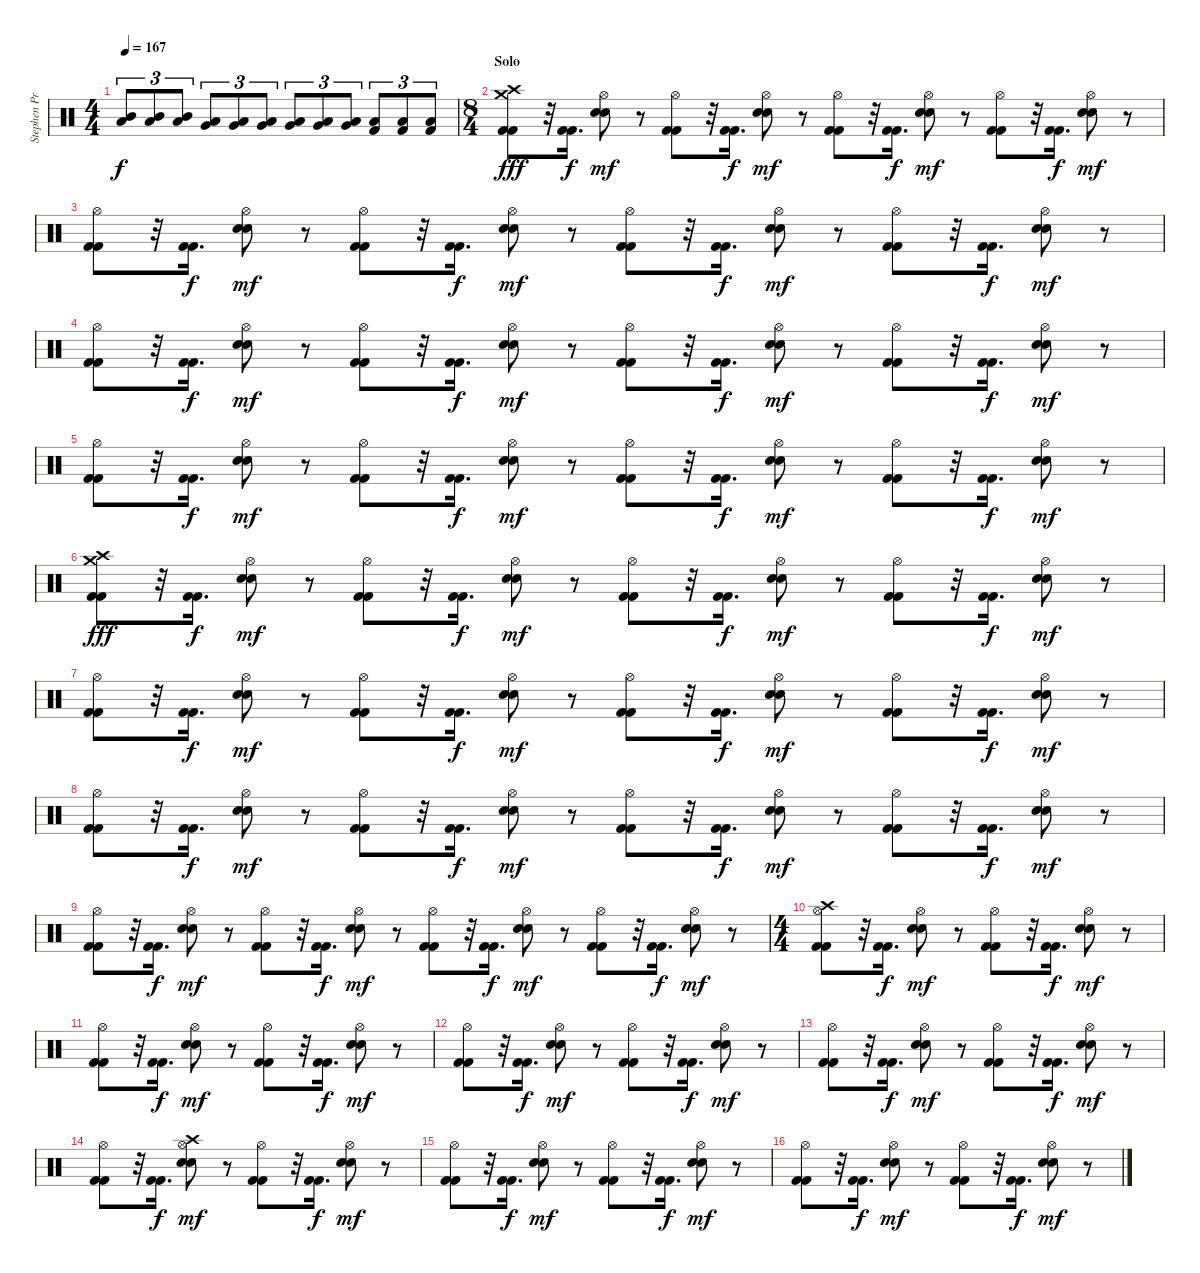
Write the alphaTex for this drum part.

\track ("Stephen Priestly  (Drums)" "Stephen Pr") {instrument percussion}
\staff {score}
\articulation defaults
\ts (4 4)
\tempo 167
\clef neutral
\ks c
("Mid Tom (hit)" "Low Tom (hit)").8{tu (3 2) dy f} ("Mid Tom (hit)" "Low Tom (hit)").8{tu (3 2)} ("Mid Tom (hit)" "Low Tom (hit)").8{tu (3 2)} ("Low Tom (hit)" "Very Low Tom (hit)").8{tu (3 2)} ("Low Tom (hit)" "Very Low Tom (hit)").8{tu (3 2)} ("Low Tom (hit)" "Very Low Tom (hit)").8{tu (3 2)} ("Very Low Tom (hit)" "Low Floor Tom (hit)").8{tu (3 2)} ("Very Low Tom (hit)" "Low Floor Tom (hit)").8{tu (3 2)} ("Very Low Tom (hit)" "Low Floor Tom (hit)").8{tu (3 2)} ("Low Floor Tom (hit)" "Kick (hit) 2").8{tu (3 2)} ("Low Floor Tom (hit)" "Kick (hit) 2").8{tu (3 2)} ("Low Floor Tom (hit)" "Kick (hit) 2").8{tu (3 2)} |
\ts (8 4)
\section ("" "Solo")
("Crash high (hit)" "Crash medium (hit)" "Kick (hit) 2" "Kick (hit) 2").8{dy fff} r.32 ("Kick (hit) 2" "Kick (hit) 2").16{d dy f} ("Hi-Hat (open)" "Electric Snare (hit)" "Electric Snare (hit)").8{dy mf} r.8 ("Hi-Hat (open)" "Kick (hit) 2" "Kick (hit) 2").8 r.32 ("Kick (hit) 2" "Kick (hit) 2").16{d dy f} ("Hi-Hat (open)" "Electric Snare (hit)" "Electric Snare (hit)").8{dy mf} r.8 ("Hi-Hat (open)" "Kick (hit) 2" "Kick (hit) 2").8 r.32 ("Kick (hit) 2" "Kick (hit) 2").16{d dy f} ("Hi-Hat (open)" "Electric Snare (hit)" "Electric Snare (hit)").8{dy mf} r.8 ("Hi-Hat (open)" "Kick (hit) 2" "Kick (hit) 2").8 r.32 ("Kick (hit) 2" "Kick (hit) 2").16{d dy f} ("Hi-Hat (open)" "Electric Snare (hit)" "Electric Snare (hit)").8{dy mf} r.8 |
("Hi-Hat (open)" "Kick (hit) 2" "Kick (hit) 2").8 r.32 ("Kick (hit) 2" "Kick (hit) 2").16{d dy f} ("Hi-Hat (open)" "Electric Snare (hit)" "Electric Snare (hit)").8{dy mf} r.8 ("Hi-Hat (open)" "Kick (hit) 2" "Kick (hit) 2").8 r.32 ("Kick (hit) 2" "Kick (hit) 2").16{d dy f} ("Hi-Hat (open)" "Electric Snare (hit)" "Electric Snare (hit)").8{dy mf} r.8 ("Hi-Hat (open)" "Kick (hit) 2" "Kick (hit) 2").8 r.32 ("Kick (hit) 2" "Kick (hit) 2").16{d dy f} ("Hi-Hat (open)" "Electric Snare (hit)" "Electric Snare (hit)").8{dy mf} r.8 ("Hi-Hat (open)" "Kick (hit) 2" "Kick (hit) 2").8 r.32 ("Kick (hit) 2" "Kick (hit) 2").16{d dy f} ("Hi-Hat (open)" "Electric Snare (hit)" "Electric Snare (hit)").8{dy mf} r.8 |
("Hi-Hat (open)" "Kick (hit) 2" "Kick (hit) 2").8 r.32 ("Kick (hit) 2" "Kick (hit) 2").16{d dy f} ("Hi-Hat (open)" "Electric Snare (hit)" "Electric Snare (hit)").8{dy mf} r.8 ("Hi-Hat (open)" "Kick (hit) 2" "Kick (hit) 2").8 r.32 ("Kick (hit) 2" "Kick (hit) 2").16{d dy f} ("Hi-Hat (open)" "Electric Snare (hit)" "Electric Snare (hit)").8{dy mf} r.8 ("Hi-Hat (open)" "Kick (hit) 2" "Kick (hit) 2").8 r.32 ("Kick (hit) 2" "Kick (hit) 2").16{d dy f} ("Hi-Hat (open)" "Electric Snare (hit)" "Electric Snare (hit)").8{dy mf} r.8 ("Hi-Hat (open)" "Kick (hit) 2" "Kick (hit) 2").8 r.32 ("Kick (hit) 2" "Kick (hit) 2").16{d dy f} ("Hi-Hat (open)" "Electric Snare (hit)" "Electric Snare (hit)").8{dy mf} r.8 |
("Hi-Hat (open)" "Kick (hit) 2" "Kick (hit) 2").8 r.32 ("Kick (hit) 2" "Kick (hit) 2").16{d dy f} ("Hi-Hat (open)" "Electric Snare (hit)" "Electric Snare (hit)").8{dy mf} r.8 ("Hi-Hat (open)" "Kick (hit) 2" "Kick (hit) 2").8 r.32 ("Kick (hit) 2" "Kick (hit) 2").16{d dy f} ("Hi-Hat (open)" "Electric Snare (hit)" "Electric Snare (hit)").8{dy mf} r.8 ("Hi-Hat (open)" "Kick (hit) 2" "Kick (hit) 2").8 r.32 ("Kick (hit) 2" "Kick (hit) 2").16{d dy f} ("Hi-Hat (open)" "Electric Snare (hit)" "Electric Snare (hit)").8{dy mf} r.8 ("Hi-Hat (open)" "Kick (hit) 2" "Kick (hit) 2").8 r.32 ("Kick (hit) 2" "Kick (hit) 2").16{d dy f} ("Hi-Hat (open)" "Electric Snare (hit)" "Electric Snare (hit)").8{dy mf} r.8 |
("Crash high (hit)" "Crash medium (hit)" "Kick (hit) 2" "Kick (hit) 2").8{dy fff} r.32 ("Kick (hit) 2" "Kick (hit) 2").16{d dy f} ("Hi-Hat (open)" "Electric Snare (hit)" "Electric Snare (hit)").8{dy mf} r.8 ("Hi-Hat (open)" "Kick (hit) 2" "Kick (hit) 2").8 r.32 ("Kick (hit) 2" "Kick (hit) 2").16{d dy f} ("Hi-Hat (open)" "Electric Snare (hit)" "Electric Snare (hit)").8{dy mf} r.8 ("Hi-Hat (open)" "Kick (hit) 2" "Kick (hit) 2").8 r.32 ("Kick (hit) 2" "Kick (hit) 2").16{d dy f} ("Hi-Hat (open)" "Electric Snare (hit)" "Electric Snare (hit)").8{dy mf} r.8 ("Hi-Hat (open)" "Kick (hit) 2" "Kick (hit) 2").8 r.32 ("Kick (hit) 2" "Kick (hit) 2").16{d dy f} ("Hi-Hat (open)" "Electric Snare (hit)" "Electric Snare (hit)").8{dy mf} r.8 |
("Hi-Hat (open)" "Kick (hit) 2" "Kick (hit) 2").8 r.32 ("Kick (hit) 2" "Kick (hit) 2").16{d dy f} ("Hi-Hat (open)" "Electric Snare (hit)" "Electric Snare (hit)").8{dy mf} r.8 ("Hi-Hat (open)" "Kick (hit) 2" "Kick (hit) 2").8 r.32 ("Kick (hit) 2" "Kick (hit) 2").16{d dy f} ("Hi-Hat (open)" "Electric Snare (hit)" "Electric Snare (hit)").8{dy mf} r.8 ("Hi-Hat (open)" "Kick (hit) 2" "Kick (hit) 2").8 r.32 ("Kick (hit) 2" "Kick (hit) 2").16{d dy f} ("Hi-Hat (open)" "Electric Snare (hit)" "Electric Snare (hit)").8{dy mf} r.8 ("Hi-Hat (open)" "Kick (hit) 2" "Kick (hit) 2").8 r.32 ("Kick (hit) 2" "Kick (hit) 2").16{d dy f} ("Hi-Hat (open)" "Electric Snare (hit)" "Electric Snare (hit)").8{dy mf} r.8 |
("Hi-Hat (open)" "Kick (hit) 2" "Kick (hit) 2").8 r.32 ("Kick (hit) 2" "Kick (hit) 2").16{d dy f} ("Hi-Hat (open)" "Electric Snare (hit)" "Electric Snare (hit)").8{dy mf} r.8 ("Hi-Hat (open)" "Kick (hit) 2" "Kick (hit) 2").8 r.32 ("Kick (hit) 2" "Kick (hit) 2").16{d dy f} ("Hi-Hat (open)" "Electric Snare (hit)" "Electric Snare (hit)").8{dy mf} r.8 ("Hi-Hat (open)" "Kick (hit) 2" "Kick (hit) 2").8 r.32 ("Kick (hit) 2" "Kick (hit) 2").16{d dy f} ("Hi-Hat (open)" "Electric Snare (hit)" "Electric Snare (hit)").8{dy mf} r.8 ("Hi-Hat (open)" "Kick (hit) 2" "Kick (hit) 2").8 r.32 ("Kick (hit) 2" "Kick (hit) 2").16{d dy f} ("Hi-Hat (open)" "Electric Snare (hit)" "Electric Snare (hit)").8{dy mf} r.8 |
("Hi-Hat (open)" "Kick (hit) 2" "Kick (hit) 2").8 r.32 ("Kick (hit) 2" "Kick (hit) 2").16{d dy f} ("Hi-Hat (open)" "Electric Snare (hit)" "Electric Snare (hit)").8{dy mf} r.8 ("Hi-Hat (open)" "Kick (hit) 2" "Kick (hit) 2").8 r.32 ("Kick (hit) 2" "Kick (hit) 2").16{d dy f} ("Hi-Hat (open)" "Electric Snare (hit)" "Electric Snare (hit)").8{dy mf} r.8 ("Hi-Hat (open)" "Kick (hit) 2" "Kick (hit) 2").8 r.32 ("Kick (hit) 2" "Kick (hit) 2").16{d dy f} ("Hi-Hat (open)" "Electric Snare (hit)" "Electric Snare (hit)").8{dy mf} r.8 ("Hi-Hat (open)" "Kick (hit) 2" "Kick (hit) 2").8 r.32 ("Kick (hit) 2" "Kick (hit) 2").16{d dy f} ("Hi-Hat (open)" "Electric Snare (hit)" "Electric Snare (hit)").8{dy mf} r.8 |
\ts (4 4)
("Crash high (hit)" "Hi-Hat (open)" "Kick (hit) 2" "Kick (hit) 2").8 r.32 ("Kick (hit) 2" "Kick (hit) 2").16{d dy f} ("Hi-Hat (open)" "Electric Snare (hit)" "Electric Snare (hit)").8{dy mf} r.8 ("Hi-Hat (open)" "Kick (hit) 2" "Kick (hit) 2").8 r.32 ("Kick (hit) 2" "Kick (hit) 2").16{d dy f} ("Hi-Hat (open)" "Electric Snare (hit)" "Electric Snare (hit)").8{dy mf} r.8 |
("Hi-Hat (open)" "Kick (hit) 2" "Kick (hit) 2").8 r.32 ("Kick (hit) 2" "Kick (hit) 2").16{d dy f} ("Hi-Hat (open)" "Electric Snare (hit)" "Electric Snare (hit)").8{dy mf} r.8 ("Hi-Hat (open)" "Kick (hit) 2" "Kick (hit) 2").8 r.32 ("Kick (hit) 2" "Kick (hit) 2").16{d dy f} ("Hi-Hat (open)" "Electric Snare (hit)" "Electric Snare (hit)").8{dy mf} r.8 |
("Hi-Hat (open)" "Kick (hit) 2" "Kick (hit) 2").8 r.32 ("Kick (hit) 2" "Kick (hit) 2").16{d dy f} ("Hi-Hat (open)" "Electric Snare (hit)" "Electric Snare (hit)").8{dy mf} r.8 ("Hi-Hat (open)" "Kick (hit) 2" "Kick (hit) 2").8 r.32 ("Kick (hit) 2" "Kick (hit) 2").16{d dy f} ("Hi-Hat (open)" "Electric Snare (hit)" "Electric Snare (hit)").8{dy mf} r.8 |
("Hi-Hat (open)" "Kick (hit) 2" "Kick (hit) 2").8 r.32 ("Kick (hit) 2" "Kick (hit) 2").16{d dy f} ("Hi-Hat (open)" "Electric Snare (hit)" "Electric Snare (hit)").8{dy mf} r.8 ("Hi-Hat (open)" "Kick (hit) 2" "Kick (hit) 2").8 r.32 ("Kick (hit) 2" "Kick (hit) 2").16{d dy f} ("Hi-Hat (open)" "Electric Snare (hit)" "Electric Snare (hit)").8{dy mf} r.8 |
("Hi-Hat (open)" "Kick (hit) 2" "Kick (hit) 2").8 r.32 ("Kick (hit) 2" "Kick (hit) 2").16{d dy f} ("Crash high (hit)" "Hi-Hat (open)" "Electric Snare (hit)" "Electric Snare (hit)").8{dy mf} r.8 ("Hi-Hat (open)" "Kick (hit) 2" "Kick (hit) 2").8 r.32 ("Kick (hit) 2" "Kick (hit) 2").16{d dy f} ("Hi-Hat (open)" "Electric Snare (hit)" "Electric Snare (hit)").8{dy mf} r.8 |
("Hi-Hat (open)" "Kick (hit) 2" "Kick (hit) 2").8 r.32 ("Kick (hit) 2" "Kick (hit) 2").16{d dy f} ("Hi-Hat (open)" "Electric Snare (hit)" "Electric Snare (hit)").8{dy mf} r.8 ("Hi-Hat (open)" "Kick (hit) 2" "Kick (hit) 2").8 r.32 ("Kick (hit) 2" "Kick (hit) 2").16{d dy f} ("Hi-Hat (open)" "Electric Snare (hit)" "Electric Snare (hit)").8{dy mf} r.8 |
("Hi-Hat (open)" "Kick (hit) 2" "Kick (hit) 2").8 r.32 ("Kick (hit) 2" "Kick (hit) 2").16{d dy f} ("Hi-Hat (open)" "Electric Snare (hit)" "Electric Snare (hit)").8{dy mf} r.8 ("Hi-Hat (open)" "Kick (hit) 2" "Kick (hit) 2").8 r.32 ("Kick (hit) 2" "Kick (hit) 2").16{d dy f} ("Hi-Hat (open)" "Electric Snare (hit)" "Electric Snare (hit)").8{dy mf} r.8
